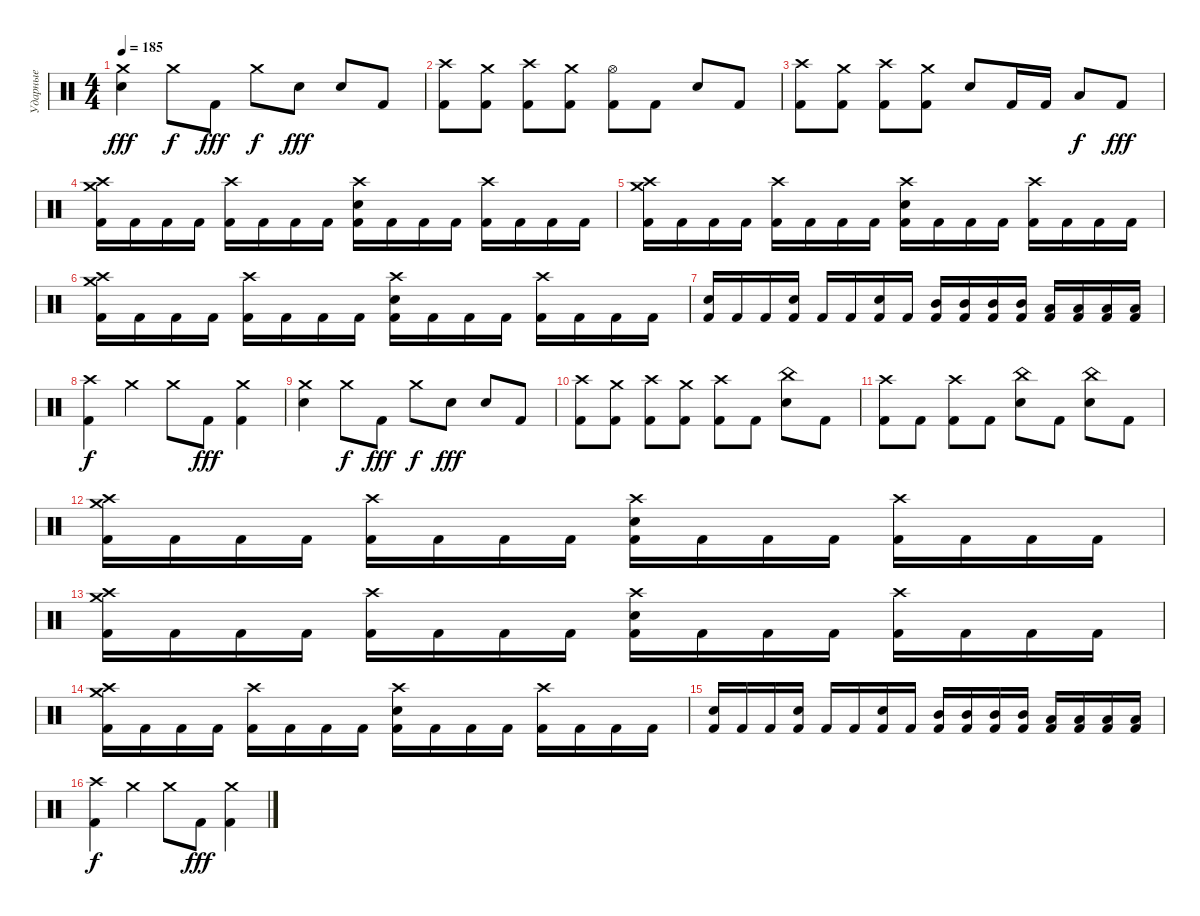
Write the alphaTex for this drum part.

\track ("Ударные" "Ударные") {instrument percussion}
\staff {score}
\articulation defaults
\ts (4 4)
\tempo 185
\clef neutral
\ks c
("Crash medium (hit)" "Electric Snare (hit)").4{dy fff} "Crash medium (hit)".8{dy f} "Kick (hit) 2".8{dy fff} "Crash medium (hit)".8{dy f} "Electric Snare (hit)".8{dy fff} "Electric Snare (hit)".8 "Kick (hit) 2".8 |
("Crash high (hit)" "Kick (hit) 2").8 ("Crash medium (hit)" "Kick (hit) 2").8 ("Crash high (hit)" "Kick (hit) 2").8 ("Crash medium (hit)" "Kick (hit) 2").8 ("Hi-Hat (open)" "Kick (hit) 2").8 "Kick (hit) 2".8 "Electric Snare (hit)".8 "Kick (hit) 2".8 |
("Crash high (hit)" "Kick (hit) 2").8 ("Crash medium (hit)" "Kick (hit) 2").8 ("Crash high (hit)" "Kick (hit) 2").8 ("Crash medium (hit)" "Kick (hit) 2").8 "Electric Snare (hit)".8 "Kick (hit) 2".16 "Kick (hit) 2".16 "Low Floor Tom (hit)".8{dy f} "Kick (hit) 2".8{dy fff} |
("Crash medium (hit)" "Crash high (hit)" "Kick (hit) 2").16 "Kick (hit) 2".16 "Kick (hit) 2".16 "Kick (hit) 2".16 ("Crash high (hit)" "Kick (hit) 2").16 "Kick (hit) 2".16 "Kick (hit) 2".16 "Kick (hit) 2".16 ("Crash high (hit)" "Electric Snare (hit)" "Kick (hit) 2").16 "Kick (hit) 2".16 "Kick (hit) 2".16 "Kick (hit) 2".16 ("Crash high (hit)" "Kick (hit) 2").16 "Kick (hit) 2".16 "Kick (hit) 2".16 "Kick (hit) 2".16 |
("Crash medium (hit)" "Crash high (hit)" "Kick (hit) 2").16 "Kick (hit) 2".16 "Kick (hit) 2".16 "Kick (hit) 2".16 ("Crash high (hit)" "Kick (hit) 2").16 "Kick (hit) 2".16 "Kick (hit) 2".16 "Kick (hit) 2".16 ("Crash high (hit)" "Electric Snare (hit)" "Kick (hit) 2").16 "Kick (hit) 2".16 "Kick (hit) 2".16 "Kick (hit) 2".16 ("Crash high (hit)" "Kick (hit) 2").16 "Kick (hit) 2".16 "Kick (hit) 2".16 "Kick (hit) 2".16 |
("Crash medium (hit)" "Crash high (hit)" "Kick (hit) 2").16 "Kick (hit) 2".16 "Kick (hit) 2".16 "Kick (hit) 2".16 ("Crash high (hit)" "Kick (hit) 2").16 "Kick (hit) 2".16 "Kick (hit) 2".16 "Kick (hit) 2".16 ("Crash high (hit)" "Electric Snare (hit)" "Kick (hit) 2").16 "Kick (hit) 2".16 "Kick (hit) 2".16 "Kick (hit) 2".16 ("Crash high (hit)" "Kick (hit) 2").16 "Kick (hit) 2".16 "Kick (hit) 2".16 "Kick (hit) 2".16 |
("Electric Snare (hit)" "Kick (hit) 2").16 "Kick (hit) 2".16 "Kick (hit) 2".16 ("Electric Snare (hit)" "Kick (hit) 2").16 "Kick (hit) 2".16 "Kick (hit) 2".16 ("Electric Snare (hit)" "Kick (hit) 2").16 "Kick (hit) 2".16 ("Mid Tom (hit)" "Kick (hit) 2").16 ("Mid Tom (hit)" "Kick (hit) 2").16 ("Mid Tom (hit)" "Kick (hit) 2").16 ("Mid Tom (hit)" "Kick (hit) 2").16 ("Low Tom (hit)" "Kick (hit) 2").16 ("Low Tom (hit)" "Kick (hit) 2").16 ("Low Tom (hit)" "Kick (hit) 2").16 ("Low Tom (hit)" "Kick (hit) 2").16 |
("Crash high (hit)" "Kick (hit) 2").4{dy f} "Crash medium (hit)".4 "Crash medium (hit)".8 "Kick (hit) 2".8{dy fff} ("Crash medium (hit)" "Kick (hit) 2").4 |
("Crash medium (hit)" "Electric Snare (hit)").4 "Crash medium (hit)".8{dy f} "Kick (hit) 2".8{dy fff} "Crash medium (hit)".8{dy f} "Electric Snare (hit)".8{dy fff} "Electric Snare (hit)".8 "Kick (hit) 2".8 |
("Crash high (hit)" "Kick (hit) 2").8 ("Crash medium (hit)" "Kick (hit) 2").8 ("Crash high (hit)" "Kick (hit) 2").8 ("Crash medium (hit)" "Kick (hit) 2").8 ("Crash high (hit)" "Kick (hit) 2").8 "Kick (hit) 2".8 ("China (hit)" "Electric Snare (hit)").8 "Kick (hit) 2".8 |
("Crash high (hit)" "Kick (hit) 2").8 "Kick (hit) 2".8 ("Crash high (hit)" "Kick (hit) 2").8 "Kick (hit) 2".8 ("China (hit)" "Electric Snare (hit)").8 "Kick (hit) 2".8 ("China (hit)" "Electric Snare (hit)").8 "Kick (hit) 2".8 |
("Crash medium (hit)" "Crash high (hit)" "Kick (hit) 2").16 "Kick (hit) 2".16 "Kick (hit) 2".16 "Kick (hit) 2".16 ("Crash high (hit)" "Kick (hit) 2").16 "Kick (hit) 2".16 "Kick (hit) 2".16 "Kick (hit) 2".16 ("Crash high (hit)" "Electric Snare (hit)" "Kick (hit) 2").16 "Kick (hit) 2".16 "Kick (hit) 2".16 "Kick (hit) 2".16 ("Crash high (hit)" "Kick (hit) 2").16 "Kick (hit) 2".16 "Kick (hit) 2".16 "Kick (hit) 2".16 |
("Crash medium (hit)" "Crash high (hit)" "Kick (hit) 2").16 "Kick (hit) 2".16 "Kick (hit) 2".16 "Kick (hit) 2".16 ("Crash high (hit)" "Kick (hit) 2").16 "Kick (hit) 2".16 "Kick (hit) 2".16 "Kick (hit) 2".16 ("Crash high (hit)" "Electric Snare (hit)" "Kick (hit) 2").16 "Kick (hit) 2".16 "Kick (hit) 2".16 "Kick (hit) 2".16 ("Crash high (hit)" "Kick (hit) 2").16 "Kick (hit) 2".16 "Kick (hit) 2".16 "Kick (hit) 2".16 |
("Crash medium (hit)" "Crash high (hit)" "Kick (hit) 2").16 "Kick (hit) 2".16 "Kick (hit) 2".16 "Kick (hit) 2".16 ("Crash high (hit)" "Kick (hit) 2").16 "Kick (hit) 2".16 "Kick (hit) 2".16 "Kick (hit) 2".16 ("Crash high (hit)" "Electric Snare (hit)" "Kick (hit) 2").16 "Kick (hit) 2".16 "Kick (hit) 2".16 "Kick (hit) 2".16 ("Crash high (hit)" "Kick (hit) 2").16 "Kick (hit) 2".16 "Kick (hit) 2".16 "Kick (hit) 2".16 |
("Electric Snare (hit)" "Kick (hit) 2").16 "Kick (hit) 2".16 "Kick (hit) 2".16 ("Electric Snare (hit)" "Kick (hit) 2").16 "Kick (hit) 2".16 "Kick (hit) 2".16 ("Electric Snare (hit)" "Kick (hit) 2").16 "Kick (hit) 2".16 ("Mid Tom (hit)" "Kick (hit) 2").16 ("Mid Tom (hit)" "Kick (hit) 2").16 ("Mid Tom (hit)" "Kick (hit) 2").16 ("Mid Tom (hit)" "Kick (hit) 2").16 ("Low Tom (hit)" "Kick (hit) 2").16 ("Low Tom (hit)" "Kick (hit) 2").16 ("Low Tom (hit)" "Kick (hit) 2").16 ("Low Tom (hit)" "Kick (hit) 2").16 |
("Crash high (hit)" "Kick (hit) 2").4{dy f} "Crash medium (hit)".4 "Crash medium (hit)".8 "Kick (hit) 2".8{dy fff} ("Crash medium (hit)" "Kick (hit) 2").4
